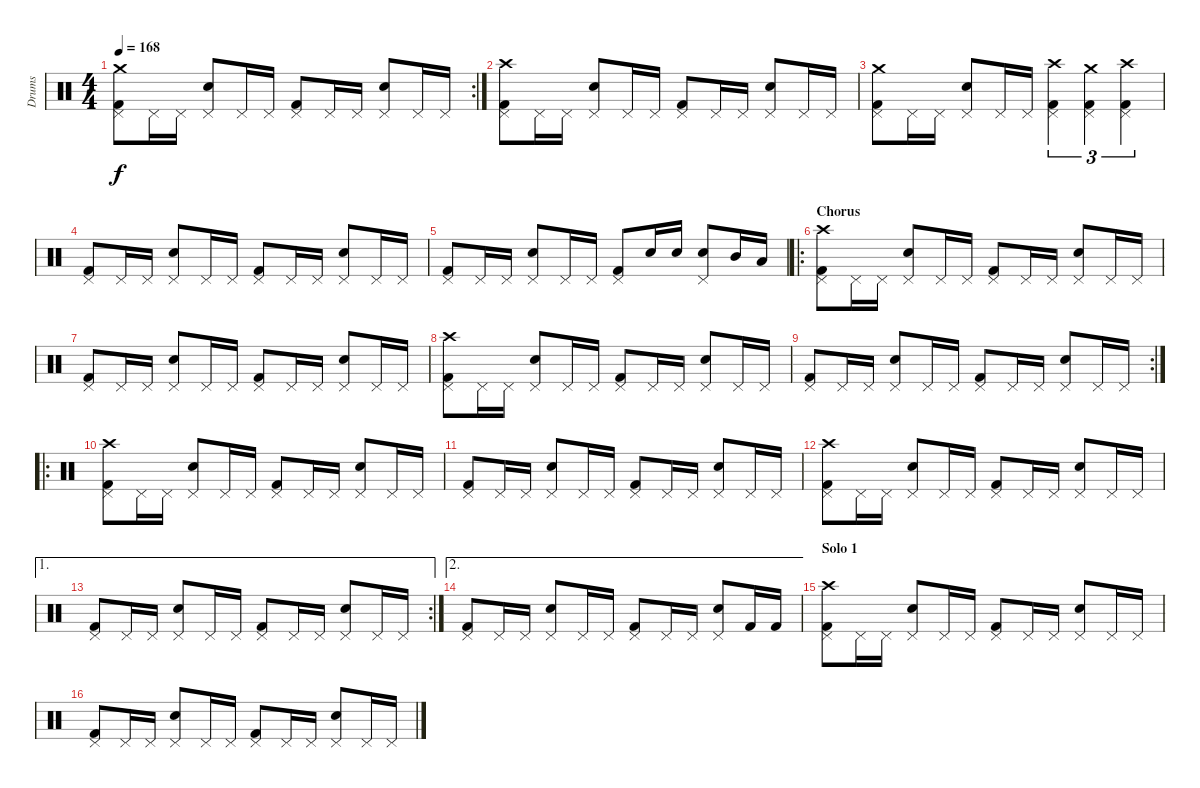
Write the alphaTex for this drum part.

\track ("Drums" "Drums") {instrument percussion}
\staff {score}
\articulation defaults
\rc 2
\ts (4 4)
\tempo 168
\clef neutral
\ks c
("Kick (hit) 2" "Pedal Hi-Hat (hit)" "Crash medium (hit)").8{dy f} "Pedal Hi-Hat (hit)".16 "Pedal Hi-Hat (hit)".16 ("Snare (hit) 2" "Pedal Hi-Hat (hit)").8 "Pedal Hi-Hat (hit)".16 "Pedal Hi-Hat (hit)".16 ("Kick (hit) 2" "Pedal Hi-Hat (hit)").8 "Pedal Hi-Hat (hit)".16 "Pedal Hi-Hat (hit)".16 ("Snare (hit) 2" "Pedal Hi-Hat (hit)").8 "Pedal Hi-Hat (hit)".16 "Pedal Hi-Hat (hit)".16 |
("Kick (hit) 2" "Pedal Hi-Hat (hit)" "Crash high (hit)").8 "Pedal Hi-Hat (hit)".16 "Pedal Hi-Hat (hit)".16 ("Snare (hit) 2" "Pedal Hi-Hat (hit)").8 "Pedal Hi-Hat (hit)".16 "Pedal Hi-Hat (hit)".16 ("Kick (hit) 2" "Pedal Hi-Hat (hit)").8 "Pedal Hi-Hat (hit)".16 "Pedal Hi-Hat (hit)".16 ("Snare (hit) 2" "Pedal Hi-Hat (hit)").8 "Pedal Hi-Hat (hit)".16 "Pedal Hi-Hat (hit)".16 |
("Kick (hit) 2" "Pedal Hi-Hat (hit)" "Crash medium (hit)").8 "Pedal Hi-Hat (hit)".16 "Pedal Hi-Hat (hit)".16 ("Snare (hit) 2" "Pedal Hi-Hat (hit)").8 "Pedal Hi-Hat (hit)".16 "Pedal Hi-Hat (hit)".16 ("Kick (hit) 2" "Pedal Hi-Hat (hit)" "Crash high (hit)").4{tu (3 2)} ("Kick (hit) 2" "Pedal Hi-Hat (hit)" "Crash medium (hit)").4{tu (3 2)} ("Kick (hit) 2" "Pedal Hi-Hat (hit)" "Crash high (hit)").4{tu (3 2)} |
("Kick (hit) 2" "Pedal Hi-Hat (hit)").8 "Pedal Hi-Hat (hit)".16 "Pedal Hi-Hat (hit)".16 ("Snare (hit) 2" "Pedal Hi-Hat (hit)").8 "Pedal Hi-Hat (hit)".16 "Pedal Hi-Hat (hit)".16 ("Kick (hit) 2" "Pedal Hi-Hat (hit)").8 "Pedal Hi-Hat (hit)".16 "Pedal Hi-Hat (hit)".16 ("Snare (hit) 2" "Pedal Hi-Hat (hit)").8 "Pedal Hi-Hat (hit)".16 "Pedal Hi-Hat (hit)".16 |
("Kick (hit) 2" "Pedal Hi-Hat (hit)").8 "Pedal Hi-Hat (hit)".16 "Pedal Hi-Hat (hit)".16 ("Snare (hit) 2" "Pedal Hi-Hat (hit)").8 "Pedal Hi-Hat (hit)".16 "Pedal Hi-Hat (hit)".16 ("Kick (hit) 2" "Pedal Hi-Hat (hit)").8 "Snare (hit) 2".16 "Snare (hit) 2".16 ("Snare (hit) 2" "Pedal Hi-Hat (hit)").8 "Mid Tom (hit)".16 "Low Tom (hit)".16 |
\ro
\section ("" "Chorus")
("Kick (hit) 2" "Pedal Hi-Hat (hit)" "Crash high (hit)").8 "Pedal Hi-Hat (hit)".16 "Pedal Hi-Hat (hit)".16 ("Snare (hit) 2" "Pedal Hi-Hat (hit)").8 "Pedal Hi-Hat (hit)".16 "Pedal Hi-Hat (hit)".16 ("Kick (hit) 2" "Pedal Hi-Hat (hit)").8 "Pedal Hi-Hat (hit)".16 "Pedal Hi-Hat (hit)".16 ("Snare (hit) 2" "Pedal Hi-Hat (hit)").8 "Pedal Hi-Hat (hit)".16 "Pedal Hi-Hat (hit)".16 |
("Kick (hit) 2" "Pedal Hi-Hat (hit)").8 "Pedal Hi-Hat (hit)".16 "Pedal Hi-Hat (hit)".16 ("Snare (hit) 2" "Pedal Hi-Hat (hit)").8 "Pedal Hi-Hat (hit)".16 "Pedal Hi-Hat (hit)".16 ("Kick (hit) 2" "Pedal Hi-Hat (hit)").8 "Pedal Hi-Hat (hit)".16 "Pedal Hi-Hat (hit)".16 ("Snare (hit) 2" "Pedal Hi-Hat (hit)").8 "Pedal Hi-Hat (hit)".16 "Pedal Hi-Hat (hit)".16 |
("Kick (hit) 2" "Pedal Hi-Hat (hit)" "Crash high (hit)").8 "Pedal Hi-Hat (hit)".16 "Pedal Hi-Hat (hit)".16 ("Snare (hit) 2" "Pedal Hi-Hat (hit)").8 "Pedal Hi-Hat (hit)".16 "Pedal Hi-Hat (hit)".16 ("Kick (hit) 2" "Pedal Hi-Hat (hit)").8 "Pedal Hi-Hat (hit)".16 "Pedal Hi-Hat (hit)".16 ("Snare (hit) 2" "Pedal Hi-Hat (hit)").8 "Pedal Hi-Hat (hit)".16 "Pedal Hi-Hat (hit)".16 |
\rc 2
("Kick (hit) 2" "Pedal Hi-Hat (hit)").8 "Pedal Hi-Hat (hit)".16 "Pedal Hi-Hat (hit)".16 ("Snare (hit) 2" "Pedal Hi-Hat (hit)").8 "Pedal Hi-Hat (hit)".16 "Pedal Hi-Hat (hit)".16 ("Kick (hit) 2" "Pedal Hi-Hat (hit)").8 "Pedal Hi-Hat (hit)".16 "Pedal Hi-Hat (hit)".16 ("Snare (hit) 2" "Pedal Hi-Hat (hit)").8 "Pedal Hi-Hat (hit)".16 "Pedal Hi-Hat (hit)".16 |
\ro
("Kick (hit) 2" "Pedal Hi-Hat (hit)" "Crash high (hit)").8 "Pedal Hi-Hat (hit)".16 "Pedal Hi-Hat (hit)".16 ("Snare (hit) 2" "Pedal Hi-Hat (hit)").8 "Pedal Hi-Hat (hit)".16 "Pedal Hi-Hat (hit)".16 ("Kick (hit) 2" "Pedal Hi-Hat (hit)").8 "Pedal Hi-Hat (hit)".16 "Pedal Hi-Hat (hit)".16 ("Snare (hit) 2" "Pedal Hi-Hat (hit)").8 "Pedal Hi-Hat (hit)".16 "Pedal Hi-Hat (hit)".16 |
("Kick (hit) 2" "Pedal Hi-Hat (hit)").8 "Pedal Hi-Hat (hit)".16 "Pedal Hi-Hat (hit)".16 ("Snare (hit) 2" "Pedal Hi-Hat (hit)").8 "Pedal Hi-Hat (hit)".16 "Pedal Hi-Hat (hit)".16 ("Kick (hit) 2" "Pedal Hi-Hat (hit)").8 "Pedal Hi-Hat (hit)".16 "Pedal Hi-Hat (hit)".16 ("Snare (hit) 2" "Pedal Hi-Hat (hit)").8 "Pedal Hi-Hat (hit)".16 "Pedal Hi-Hat (hit)".16 |
("Kick (hit) 2" "Pedal Hi-Hat (hit)" "Crash high (hit)").8 "Pedal Hi-Hat (hit)".16 "Pedal Hi-Hat (hit)".16 ("Snare (hit) 2" "Pedal Hi-Hat (hit)").8 "Pedal Hi-Hat (hit)".16 "Pedal Hi-Hat (hit)".16 ("Kick (hit) 2" "Pedal Hi-Hat (hit)").8 "Pedal Hi-Hat (hit)".16 "Pedal Hi-Hat (hit)".16 ("Snare (hit) 2" "Pedal Hi-Hat (hit)").8 "Pedal Hi-Hat (hit)".16 "Pedal Hi-Hat (hit)".16 |
\ae 1
\rc 2
("Kick (hit) 2" "Pedal Hi-Hat (hit)").8 "Pedal Hi-Hat (hit)".16 "Pedal Hi-Hat (hit)".16 ("Snare (hit) 2" "Pedal Hi-Hat (hit)").8 "Pedal Hi-Hat (hit)".16 "Pedal Hi-Hat (hit)".16 ("Kick (hit) 2" "Pedal Hi-Hat (hit)").8 "Pedal Hi-Hat (hit)".16 "Pedal Hi-Hat (hit)".16 ("Snare (hit) 2" "Pedal Hi-Hat (hit)").8 "Pedal Hi-Hat (hit)".16 "Pedal Hi-Hat (hit)".16 |
\ae 2
("Kick (hit) 2" "Pedal Hi-Hat (hit)").8 "Pedal Hi-Hat (hit)".16 "Pedal Hi-Hat (hit)".16 ("Snare (hit) 2" "Pedal Hi-Hat (hit)").8 "Pedal Hi-Hat (hit)".16 "Pedal Hi-Hat (hit)".16 ("Kick (hit) 2" "Pedal Hi-Hat (hit)").8 "Pedal Hi-Hat (hit)".16 "Pedal Hi-Hat (hit)".16 ("Snare (hit) 2" "Pedal Hi-Hat (hit)").8 "Kick (hit) 2".16 "Kick (hit) 2".16 |
\section ("" "Solo 1")
("Kick (hit) 2" "Pedal Hi-Hat (hit)" "Crash high (hit)").8 "Pedal Hi-Hat (hit)".16 "Pedal Hi-Hat (hit)".16 ("Snare (hit) 2" "Pedal Hi-Hat (hit)").8 "Pedal Hi-Hat (hit)".16 "Pedal Hi-Hat (hit)".16 ("Kick (hit) 2" "Pedal Hi-Hat (hit)").8 "Pedal Hi-Hat (hit)".16 "Pedal Hi-Hat (hit)".16 ("Snare (hit) 2" "Pedal Hi-Hat (hit)").8 "Pedal Hi-Hat (hit)".16 "Pedal Hi-Hat (hit)".16 |
("Kick (hit) 2" "Pedal Hi-Hat (hit)").8 "Pedal Hi-Hat (hit)".16 "Pedal Hi-Hat (hit)".16 ("Snare (hit) 2" "Pedal Hi-Hat (hit)").8 "Pedal Hi-Hat (hit)".16 "Pedal Hi-Hat (hit)".16 ("Kick (hit) 2" "Pedal Hi-Hat (hit)").8 "Pedal Hi-Hat (hit)".16 "Pedal Hi-Hat (hit)".16 ("Snare (hit) 2" "Pedal Hi-Hat (hit)").8 "Pedal Hi-Hat (hit)".16 "Pedal Hi-Hat (hit)".16
